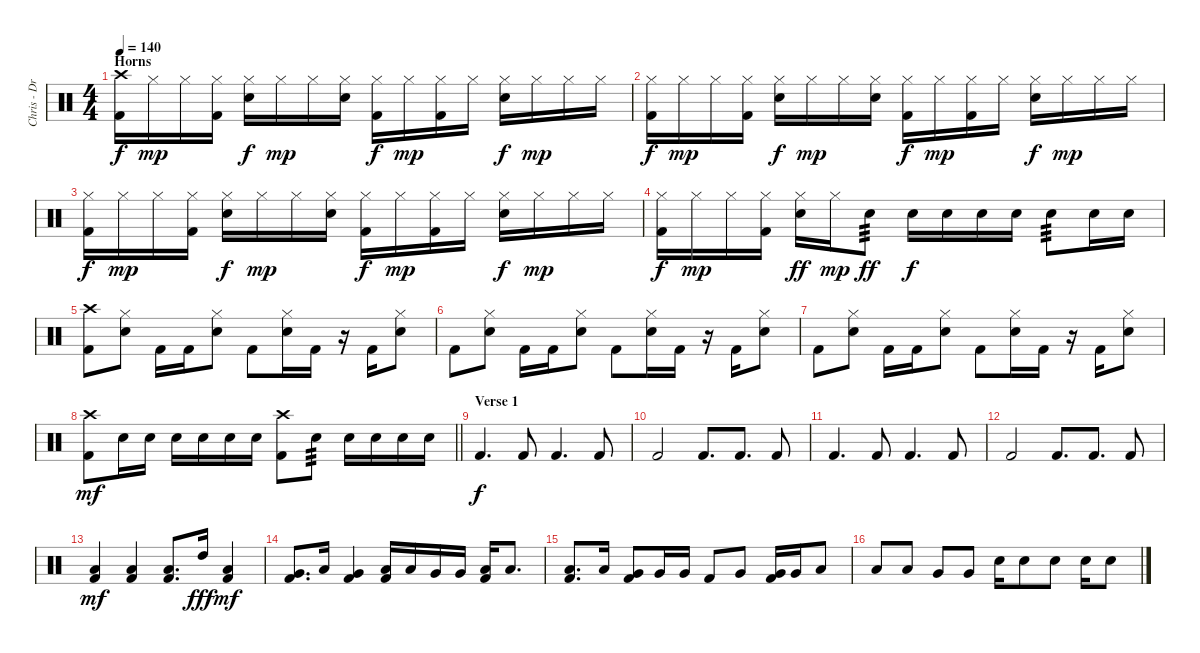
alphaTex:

\track ("Chris - Drums" "Chris - Dr") {instrument percussion}
\staff {score}
\articulation defaults
\ts (4 4)
\section ("" "Horns")
\tempo 140
\clef neutral
\ks c
("Crash high (hit)" "Kick (hit) 2").16{dy f} "Hi-Hat (closed)".16{dy mp} "Hi-Hat (closed)".16 ("Hi-Hat (closed)" "Kick (hit) 2").16 ("Hi-Hat (closed)" "Electric Snare (hit)").16{dy f} "Hi-Hat (closed)".16{dy mp} "Hi-Hat (closed)".16 ("Hi-Hat (closed)" "Electric Snare (hit)").16 ("Hi-Hat (closed)" "Kick (hit) 2").16{dy f} "Hi-Hat (closed)".16{dy mp} ("Hi-Hat (closed)" "Kick (hit) 2").16 "Hi-Hat (closed)".16 ("Hi-Hat (closed)" "Electric Snare (hit)").16{dy f} "Hi-Hat (closed)".16{dy mp} "Hi-Hat (closed)".16 "Hi-Hat (closed)".16 |
("Hi-Hat (closed)" "Kick (hit) 2").16{dy f} "Hi-Hat (closed)".16{dy mp} "Hi-Hat (closed)".16 ("Hi-Hat (closed)" "Kick (hit) 2").16 ("Hi-Hat (closed)" "Electric Snare (hit)").16{dy f} "Hi-Hat (closed)".16{dy mp} "Hi-Hat (closed)".16 ("Hi-Hat (closed)" "Electric Snare (hit)").16 ("Hi-Hat (closed)" "Kick (hit) 2").16{dy f} "Hi-Hat (closed)".16{dy mp} ("Hi-Hat (closed)" "Kick (hit) 2").16 "Hi-Hat (closed)".16 ("Hi-Hat (closed)" "Electric Snare (hit)").16{dy f} "Hi-Hat (closed)".16{dy mp} "Hi-Hat (closed)".16 "Hi-Hat (closed)".16 |
("Hi-Hat (closed)" "Kick (hit) 2").16{dy f} "Hi-Hat (closed)".16{dy mp} "Hi-Hat (closed)".16 ("Hi-Hat (closed)" "Kick (hit) 2").16 ("Hi-Hat (closed)" "Electric Snare (hit)").16{dy f} "Hi-Hat (closed)".16{dy mp} "Hi-Hat (closed)".16 ("Hi-Hat (closed)" "Electric Snare (hit)").16 ("Hi-Hat (closed)" "Kick (hit) 2").16{dy f} "Hi-Hat (closed)".16{dy mp} ("Hi-Hat (closed)" "Kick (hit) 2").16 "Hi-Hat (closed)".16 ("Hi-Hat (closed)" "Electric Snare (hit)").16{dy f} "Hi-Hat (closed)".16{dy mp} "Hi-Hat (closed)".16 "Hi-Hat (closed)".16 |
("Hi-Hat (closed)" "Kick (hit) 2").16{dy f} "Hi-Hat (closed)".16{dy mp} "Hi-Hat (closed)".16 ("Hi-Hat (closed)" "Kick (hit) 2").16 ("Hi-Hat (closed)" "Electric Snare (hit)").16{dy ff} "Hi-Hat (closed)".16{dy mp} "Electric Snare (hit)".8{tp 3 dy ff} "Electric Snare (hit)".16{dy f} "Electric Snare (hit)".16 "Electric Snare (hit)".16 "Electric Snare (hit)".16 "Electric Snare (hit)".8{tp 3} "Electric Snare (hit)".16 "Electric Snare (hit)".16 |
("Crash high (hit)" "Kick (hit) 2").8 ("Hi-Hat (closed)" "Electric Snare (hit)").8 "Kick (hit) 2".16 "Kick (hit) 2".16 ("Hi-Hat (closed)" "Electric Snare (hit)").8 "Kick (hit) 2".8 ("Hi-Hat (closed)" "Electric Snare (hit)").16 "Kick (hit) 2".16 r.16 "Kick (hit) 2".16 ("Hi-Hat (closed)" "Electric Snare (hit)").8 |
"Kick (hit) 2".8 ("Hi-Hat (closed)" "Electric Snare (hit)").8 "Kick (hit) 2".16 "Kick (hit) 2".16 ("Hi-Hat (closed)" "Electric Snare (hit)").8 "Kick (hit) 2".8 ("Hi-Hat (closed)" "Electric Snare (hit)").16 "Kick (hit) 2".16 r.16 "Kick (hit) 2".16 ("Hi-Hat (closed)" "Electric Snare (hit)").8 |
"Kick (hit) 2".8 ("Hi-Hat (closed)" "Electric Snare (hit)").8 "Kick (hit) 2".16 "Kick (hit) 2".16 ("Hi-Hat (closed)" "Electric Snare (hit)").8 "Kick (hit) 2".8 ("Hi-Hat (closed)" "Electric Snare (hit)").16 "Kick (hit) 2".16 r.16 "Kick (hit) 2".16 ("Hi-Hat (closed)" "Electric Snare (hit)").8 |
\barLineRight lightlight
("Crash high (hit)" "Kick (hit) 2").8{dy mf} "Electric Snare (hit)".16 "Electric Snare (hit)".16 "Electric Snare (hit)".16 "Electric Snare (hit)".16 "Electric Snare (hit)".16 "Electric Snare (hit)".16 ("Crash high (hit)" "Kick (hit) 2").8 "Electric Snare (hit)".8{tp 3} "Electric Snare (hit)".16 "Electric Snare (hit)".16 "Electric Snare (hit)".16 "Electric Snare (hit)".16 |
\section ("" "Verse 1")
"Kick (hit) 2".4{d dy f} "Kick (hit) 2".8 "Kick (hit) 2".4{d} "Kick (hit) 2".8 |
"Kick (hit) 2".2 "Kick (hit) 2".8{d} "Kick (hit) 2".8{d} "Kick (hit) 2".8 |
"Kick (hit) 2".4{d} "Kick (hit) 2".8 "Kick (hit) 2".4{d} "Kick (hit) 2".8 |
"Kick (hit) 2".2 "Kick (hit) 2".8{d} "Kick (hit) 2".8{d} "Kick (hit) 2".8 |
("Low Floor Tom (hit)" "Kick (hit) 2").4{dy mf} ("Low Tom (hit)" "Kick (hit) 2").4 ("Low Floor Tom (hit)" "Kick (hit) 2").8{d} "High Tom (hit)".16{dy fff} ("Low Tom (hit)" "Kick (hit) 2").4{dy mf} |
("Very Low Tom (hit)" "Kick (hit) 2").8{d} "Low Tom (hit)".16 ("Very Low Tom (hit)" "Kick (hit) 2").4 ("Low Tom (hit)" "Kick (hit) 2").16 "Low Tom (hit)".16 "Very Low Tom (hit)".16 "Very Low Tom (hit)".16 ("Low Floor Tom (hit)" "Kick (hit) 2").16 "Low Floor Tom (hit)".8{d} |
("Low Tom (hit)" "Kick (hit) 2").8{d} "Low Tom (hit)".16 ("Very Low Tom (hit)" "Kick (hit) 2").8 "Very Low Tom (hit)".16 "Very Low Tom (hit)".16 "Kick (hit) 2".8 "Very Low Tom (hit)".8 ("Very Low Tom (hit)" "Kick (hit) 2").16 "Very Low Tom (hit)".16 "Low Floor Tom (hit)".8 |
"Low Tom (hit)".8 "Low Tom (hit)".8 "Very Low Tom (hit)".8 "Very Low Tom (hit)".8 "Electric Snare (hit)".16 "Electric Snare (hit)".8 "Electric Snare (hit)".8 "Electric Snare (hit)".16 "Electric Snare (hit)".8
